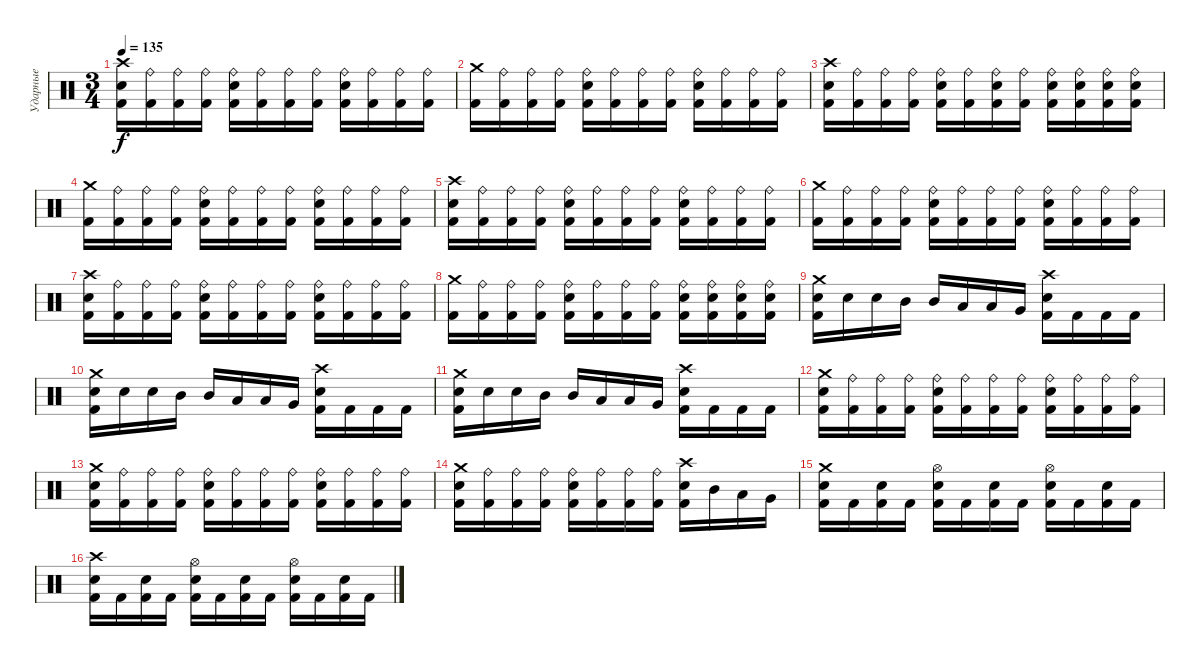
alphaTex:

\track ("Ударные" "Ударные") {instrument percussion}
\staff {score}
\articulation defaults
\ts (3 4)
\tempo 135
\clef neutral
\ks c
("Crash high (hit)" "Electric Snare (hit)" "Kick (hit) 2").16{dy f} ("Ride (bell)" "Kick (hit) 2").16 ("Ride (bell)" "Kick (hit) 2").16 ("Ride (bell)" "Kick (hit) 2").16 ("Ride (bell)" "Electric Snare (hit)" "Kick (hit) 2").16 ("Ride (bell)" "Kick (hit) 2").16 ("Ride (bell)" "Kick (hit) 2").16 ("Ride (bell)" "Kick (hit) 2").16 ("Ride (bell)" "Electric Snare (hit)" "Kick (hit) 2").16 ("Ride (bell)" "Kick (hit) 2").16 ("Ride (bell)" "Kick (hit) 2").16 ("Ride (bell)" "Kick (hit) 2").16 |
("Crash medium (hit)" "Kick (hit) 2").16 ("Ride (bell)" "Kick (hit) 2").16 ("Ride (bell)" "Kick (hit) 2").16 ("Ride (bell)" "Kick (hit) 2").16 ("Ride (bell)" "Electric Snare (hit)" "Kick (hit) 2").16 ("Ride (bell)" "Kick (hit) 2").16 ("Ride (bell)" "Kick (hit) 2").16 ("Ride (bell)" "Kick (hit) 2").16 ("Ride (bell)" "Electric Snare (hit)" "Kick (hit) 2").16 ("Ride (bell)" "Kick (hit) 2").16 ("Ride (bell)" "Kick (hit) 2").16 ("Ride (bell)" "Kick (hit) 2").16 |
("Crash high (hit)" "Electric Snare (hit)" "Kick (hit) 2").16 ("Ride (bell)" "Kick (hit) 2").16 ("Ride (bell)" "Kick (hit) 2").16 ("Ride (bell)" "Kick (hit) 2").16 ("Ride (bell)" "Electric Snare (hit)" "Kick (hit) 2").16 ("Ride (bell)" "Kick (hit) 2").16 ("Ride (bell)" "Electric Snare (hit)" "Kick (hit) 2").16 ("Ride (bell)" "Kick (hit) 2").16 ("Ride (bell)" "Electric Snare (hit)" "Kick (hit) 2").16 ("Ride (bell)" "Electric Snare (hit)" "Kick (hit) 2").16 ("Ride (bell)" "Electric Snare (hit)" "Kick (hit) 2").16 ("Ride (bell)" "Electric Snare (hit)" "Kick (hit) 2").16 |
("Crash medium (hit)" "Kick (hit) 2").16 ("Ride (bell)" "Kick (hit) 2").16 ("Ride (bell)" "Kick (hit) 2").16 ("Ride (bell)" "Kick (hit) 2").16 ("Ride (bell)" "Electric Snare (hit)" "Kick (hit) 2").16 ("Ride (bell)" "Kick (hit) 2").16 ("Ride (bell)" "Kick (hit) 2").16 ("Ride (bell)" "Kick (hit) 2").16 ("Ride (bell)" "Electric Snare (hit)" "Kick (hit) 2").16 ("Ride (bell)" "Kick (hit) 2").16 ("Ride (bell)" "Kick (hit) 2").16 ("Ride (bell)" "Kick (hit) 2").16 |
("Crash high (hit)" "Electric Snare (hit)" "Kick (hit) 2").16 ("Ride (bell)" "Kick (hit) 2").16 ("Ride (bell)" "Kick (hit) 2").16 ("Ride (bell)" "Kick (hit) 2").16 ("Ride (bell)" "Electric Snare (hit)" "Kick (hit) 2").16 ("Ride (bell)" "Kick (hit) 2").16 ("Ride (bell)" "Kick (hit) 2").16 ("Ride (bell)" "Kick (hit) 2").16 ("Ride (bell)" "Electric Snare (hit)" "Kick (hit) 2").16 ("Ride (bell)" "Kick (hit) 2").16 ("Ride (bell)" "Kick (hit) 2").16 ("Ride (bell)" "Kick (hit) 2").16 |
("Crash medium (hit)" "Kick (hit) 2").16 ("Ride (bell)" "Kick (hit) 2").16 ("Ride (bell)" "Kick (hit) 2").16 ("Ride (bell)" "Kick (hit) 2").16 ("Ride (bell)" "Electric Snare (hit)" "Kick (hit) 2").16 ("Ride (bell)" "Kick (hit) 2").16 ("Ride (bell)" "Kick (hit) 2").16 ("Ride (bell)" "Kick (hit) 2").16 ("Ride (bell)" "Electric Snare (hit)" "Kick (hit) 2").16 ("Ride (bell)" "Kick (hit) 2").16 ("Ride (bell)" "Kick (hit) 2").16 ("Ride (bell)" "Kick (hit) 2").16 |
("Crash high (hit)" "Electric Snare (hit)" "Kick (hit) 2").16 ("Ride (bell)" "Kick (hit) 2").16 ("Ride (bell)" "Kick (hit) 2").16 ("Ride (bell)" "Kick (hit) 2").16 ("Ride (bell)" "Electric Snare (hit)" "Kick (hit) 2").16 ("Ride (bell)" "Kick (hit) 2").16 ("Ride (bell)" "Kick (hit) 2").16 ("Ride (bell)" "Kick (hit) 2").16 ("Ride (bell)" "Electric Snare (hit)" "Kick (hit) 2").16 ("Ride (bell)" "Kick (hit) 2").16 ("Ride (bell)" "Kick (hit) 2").16 ("Ride (bell)" "Kick (hit) 2").16 |
("Crash medium (hit)" "Kick (hit) 2").16 ("Ride (bell)" "Kick (hit) 2").16 ("Ride (bell)" "Kick (hit) 2").16 ("Ride (bell)" "Kick (hit) 2").16 ("Ride (bell)" "Electric Snare (hit)" "Kick (hit) 2").16 ("Ride (bell)" "Kick (hit) 2").16 ("Ride (bell)" "Kick (hit) 2").16 ("Ride (bell)" "Kick (hit) 2").16 ("Ride (bell)" "Electric Snare (hit)" "Kick (hit) 2").16 ("Ride (bell)" "Electric Snare (hit)" "Kick (hit) 2").16 ("Ride (bell)" "Electric Snare (hit)" "Kick (hit) 2").16 ("Ride (bell)" "Electric Snare (hit)" "Kick (hit) 2").16 |
("Crash medium (hit)" "Electric Snare (hit)" "Kick (hit) 2").16 "Electric Snare (hit)".16 "Electric Snare (hit)".16 "Mid Tom (hit)".16 "Mid Tom (hit)".16 "Low Tom (hit)".16 "Low Tom (hit)".16 "Very Low Tom (hit)".16 ("Crash high (hit)" "Electric Snare (hit)" "Kick (hit) 2").16 "Kick (hit) 2".16 "Kick (hit) 2".16 "Kick (hit) 2".16 |
("Crash medium (hit)" "Electric Snare (hit)" "Kick (hit) 2").16 "Electric Snare (hit)".16 "Electric Snare (hit)".16 "Mid Tom (hit)".16 "Mid Tom (hit)".16 "Low Tom (hit)".16 "Low Tom (hit)".16 "Very Low Tom (hit)".16 ("Crash high (hit)" "Electric Snare (hit)" "Kick (hit) 2").16 "Kick (hit) 2".16 "Kick (hit) 2".16 "Kick (hit) 2".16 |
("Crash medium (hit)" "Electric Snare (hit)" "Kick (hit) 2").16 "Electric Snare (hit)".16 "Electric Snare (hit)".16 "Mid Tom (hit)".16 "Mid Tom (hit)".16 "Low Tom (hit)".16 "Low Tom (hit)".16 "Very Low Tom (hit)".16 ("Crash high (hit)" "Electric Snare (hit)" "Kick (hit) 2").16 "Kick (hit) 2".16 "Kick (hit) 2".16 "Kick (hit) 2".16 |
("Crash medium (hit)" "Electric Snare (hit)" "Kick (hit) 2").16 ("Ride (bell)" "Kick (hit) 2").16 ("Ride (bell)" "Kick (hit) 2").16 ("Ride (bell)" "Kick (hit) 2").16 ("Ride (bell)" "Electric Snare (hit)" "Kick (hit) 2").16 ("Ride (bell)" "Kick (hit) 2").16 ("Ride (bell)" "Kick (hit) 2").16 ("Ride (bell)" "Kick (hit) 2").16 ("Ride (bell)" "Electric Snare (hit)" "Kick (hit) 2").16 ("Ride (bell)" "Kick (hit) 2").16 ("Ride (bell)" "Kick (hit) 2").16 ("Ride (bell)" "Kick (hit) 2").16 |
("Crash medium (hit)" "Electric Snare (hit)" "Kick (hit) 2").16 ("Ride (bell)" "Kick (hit) 2").16 ("Ride (bell)" "Kick (hit) 2").16 ("Ride (bell)" "Kick (hit) 2").16 ("Ride (bell)" "Electric Snare (hit)" "Kick (hit) 2").16 ("Ride (bell)" "Kick (hit) 2").16 ("Ride (bell)" "Kick (hit) 2").16 ("Ride (bell)" "Kick (hit) 2").16 ("Ride (bell)" "Electric Snare (hit)" "Kick (hit) 2").16 ("Ride (bell)" "Kick (hit) 2").16 ("Ride (bell)" "Kick (hit) 2").16 ("Ride (bell)" "Kick (hit) 2").16 |
("Crash medium (hit)" "Electric Snare (hit)" "Kick (hit) 2").16 ("Ride (bell)" "Kick (hit) 2").16 ("Ride (bell)" "Kick (hit) 2").16 ("Ride (bell)" "Kick (hit) 2").16 ("Ride (bell)" "Electric Snare (hit)" "Kick (hit) 2").16 ("Ride (bell)" "Kick (hit) 2").16 ("Ride (bell)" "Kick (hit) 2").16 ("Ride (bell)" "Kick (hit) 2").16 ("Crash high (hit)" "Electric Snare (hit)" "Kick (hit) 2").16 "Mid Tom (hit)".16 "Low Tom (hit)".16 "Very Low Tom (hit)".16 |
("Crash medium (hit)" "Electric Snare (hit)" "Kick (hit) 2").16 "Kick (hit) 2".16 ("Electric Snare (hit)" "Kick (hit) 2").16 "Kick (hit) 2".16 ("Hi-Hat (open)" "Electric Snare (hit)" "Kick (hit) 2").16 "Kick (hit) 2".16 ("Electric Snare (hit)" "Kick (hit) 2").16 "Kick (hit) 2".16 ("Hi-Hat (open)" "Electric Snare (hit)" "Kick (hit) 2").16 "Kick (hit) 2".16 ("Electric Snare (hit)" "Kick (hit) 2").16 "Kick (hit) 2".16 |
("Crash high (hit)" "Electric Snare (hit)" "Kick (hit) 2").16 "Kick (hit) 2".16 ("Electric Snare (hit)" "Kick (hit) 2").16 "Kick (hit) 2".16 ("Hi-Hat (open)" "Electric Snare (hit)" "Kick (hit) 2").16 "Kick (hit) 2".16 ("Electric Snare (hit)" "Kick (hit) 2").16 "Kick (hit) 2".16 ("Hi-Hat (open)" "Electric Snare (hit)" "Kick (hit) 2").16 "Kick (hit) 2".16 ("Electric Snare (hit)" "Kick (hit) 2").16 "Kick (hit) 2".16
